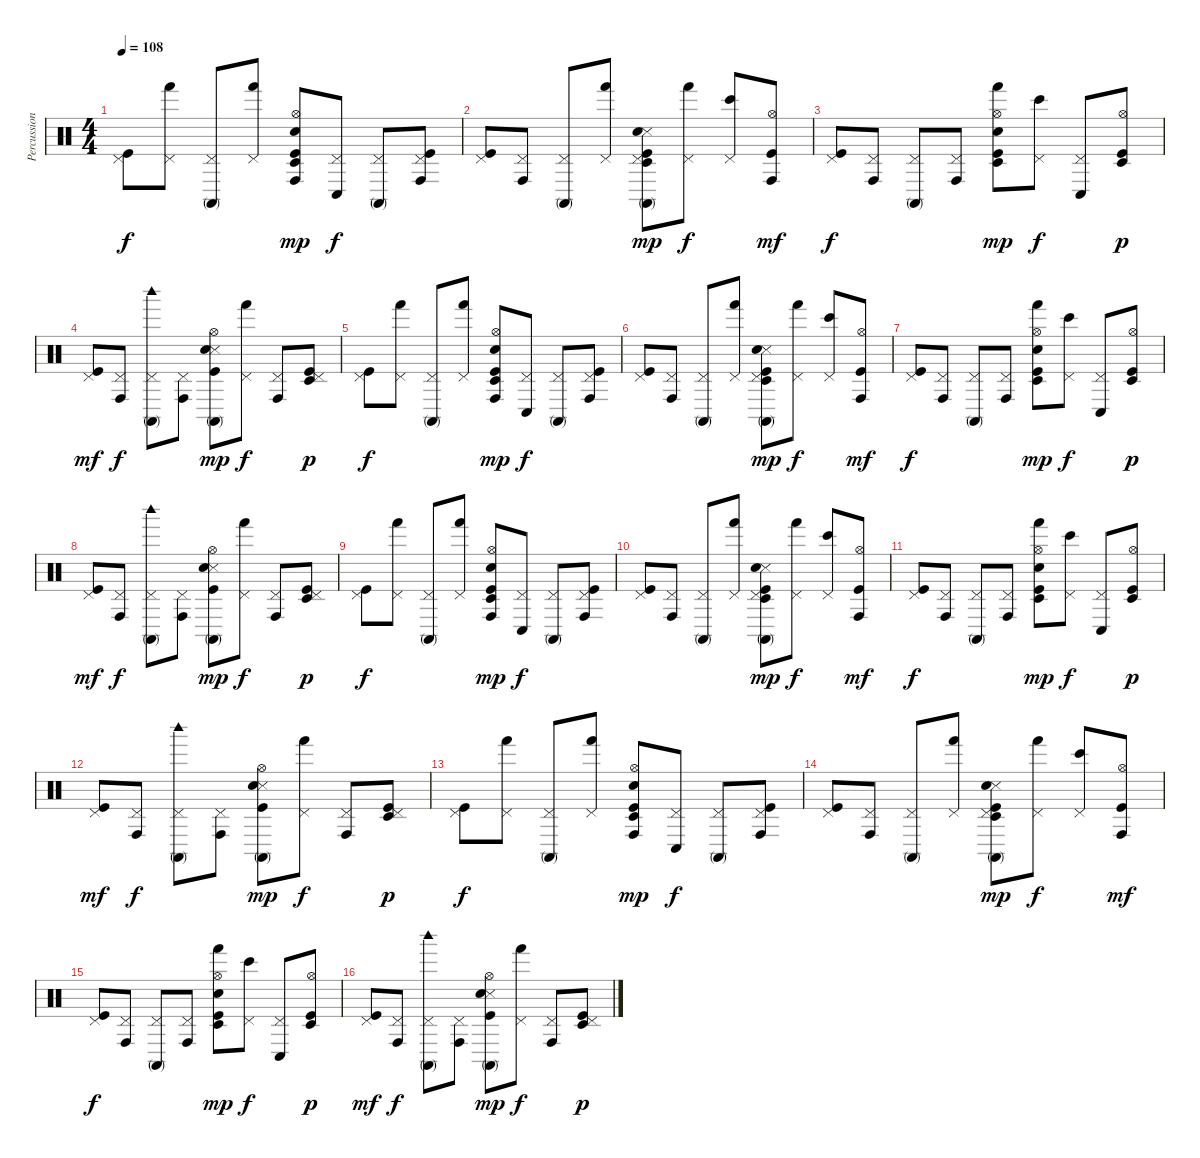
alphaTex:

\track ("Percussions" "Percussion") {instrument percussion}
\staff {score}
\articulation defaults
\ts (4 4)
\tempo 108
\clef neutral
\ks c
("Pedal Hi-Hat (hit)" "Kick (hit)").8{dy f} ("Pedal Hi-Hat (hit)" "Hand (hit)").8 ("Pedal Hi-Hat (hit)" "Conga high (mute)").8 ("Pedal Hi-Hat (hit)" "Hand (hit)").8 ("Hi-Hat (open)" "Conga high (hit)" "Kick (hit)" "Snare (hit) 2" "Timbale low (hit)").8{dy mp} ("Pedal Hi-Hat (hit)" "Conga low (hit)").8{dy f} ("Pedal Hi-Hat (hit)" "Conga high (mute)").8 ("Pedal Hi-Hat (hit)" "Kick (hit)" "Conga high (hit)").8 |
("Pedal Hi-Hat (hit)" "Kick (hit)").8 ("Pedal Hi-Hat (hit)" "Conga high (hit)").8 ("Pedal Hi-Hat (hit)" "Conga high (mute)").8 ("Pedal Hi-Hat (hit)" "Hand (hit)").8 ("Pedal Hi-Hat (hit)" "Conga high (mute)" "Snare (side stick) 3" "Kick (hit)" "Snare (hit) 2" "Timbale low (hit)").8{dy mp} ("Pedal Hi-Hat (hit)" "Hand (hit)").8{dy f} ("Pedal Hi-Hat (hit)" "Bongo High (hit)").8 ("Hi-Hat (open)" "Conga high (hit)" "Kick (hit)").8{dy mf} |
("Pedal Hi-Hat (hit)" "Kick (hit)").8{dy f} ("Pedal Hi-Hat (hit)" "Conga high (hit)").8 ("Pedal Hi-Hat (hit)" "Conga high (mute)").8 ("Pedal Hi-Hat (hit)" "Conga high (hit)").8 ("Hi-Hat (open)" "Hand (hit)" "Kick (hit)" "Snare (hit) 2" "Timbale low (hit)").8{dy mp} ("Pedal Hi-Hat (hit)" "Bongo High (hit)").8{dy f} ("Pedal Hi-Hat (hit)" "Conga low (hit)").8 ("Hi-Hat (open)" "Kick (hit)" "Timbale low (hit)").8{dy p} |
("Pedal Hi-Hat (hit)" "Kick (hit)").8{dy mf} ("Pedal Hi-Hat (hit)" "Conga high (hit)").8{dy f} ("Pedal Hi-Hat (hit)" "Conga high (mute)" "Woodblock high (hit)").8 ("Pedal Hi-Hat (hit)" "Conga high (hit)").8 ("Hi-Hat (open)" "Snare (side stick) 3" "Kick (hit)" "Conga high (mute)" "Snare (hit) 2").8{dy mp} ("Pedal Hi-Hat (hit)" "Hand (hit)").8{dy f} ("Pedal Hi-Hat (hit)" "Conga high (hit)").8 ("Pedal Hi-Hat (hit)" "Kick (hit)" "Timbale low (hit)").8{dy p} |
("Pedal Hi-Hat (hit)" "Kick (hit)").8{dy f} ("Pedal Hi-Hat (hit)" "Hand (hit)").8 ("Pedal Hi-Hat (hit)" "Conga high (mute)").8 ("Pedal Hi-Hat (hit)" "Hand (hit)").8 ("Hi-Hat (open)" "Conga high (hit)" "Kick (hit)" "Snare (hit) 2" "Timbale low (hit)").8{dy mp} ("Pedal Hi-Hat (hit)" "Conga low (hit)").8{dy f} ("Pedal Hi-Hat (hit)" "Conga high (mute)").8 ("Pedal Hi-Hat (hit)" "Kick (hit)" "Conga high (hit)").8 |
("Pedal Hi-Hat (hit)" "Kick (hit)").8 ("Pedal Hi-Hat (hit)" "Conga high (hit)").8 ("Pedal Hi-Hat (hit)" "Conga high (mute)").8 ("Pedal Hi-Hat (hit)" "Hand (hit)").8 ("Pedal Hi-Hat (hit)" "Conga high (mute)" "Snare (side stick) 3" "Kick (hit)" "Snare (hit) 2" "Timbale low (hit)").8{dy mp} ("Pedal Hi-Hat (hit)" "Hand (hit)").8{dy f} ("Pedal Hi-Hat (hit)" "Bongo High (hit)").8 ("Hi-Hat (open)" "Conga high (hit)" "Kick (hit)").8{dy mf} |
("Pedal Hi-Hat (hit)" "Kick (hit)").8{dy f} ("Pedal Hi-Hat (hit)" "Conga high (hit)").8 ("Pedal Hi-Hat (hit)" "Conga high (mute)").8 ("Pedal Hi-Hat (hit)" "Conga high (hit)").8 ("Hi-Hat (open)" "Hand (hit)" "Kick (hit)" "Snare (hit) 2" "Timbale low (hit)").8{dy mp} ("Pedal Hi-Hat (hit)" "Bongo High (hit)").8{dy f} ("Pedal Hi-Hat (hit)" "Conga low (hit)").8 ("Hi-Hat (open)" "Kick (hit)" "Timbale low (hit)").8{dy p} |
("Pedal Hi-Hat (hit)" "Kick (hit)").8{dy mf} ("Pedal Hi-Hat (hit)" "Conga high (hit)").8{dy f} ("Pedal Hi-Hat (hit)" "Conga high (mute)" "Woodblock high (hit)").8 ("Pedal Hi-Hat (hit)" "Conga high (hit)").8 ("Hi-Hat (open)" "Snare (side stick) 3" "Kick (hit)" "Conga high (mute)" "Snare (hit) 2").8{dy mp} ("Pedal Hi-Hat (hit)" "Hand (hit)").8{dy f} ("Pedal Hi-Hat (hit)" "Conga high (hit)").8 ("Pedal Hi-Hat (hit)" "Kick (hit)" "Timbale low (hit)").8{dy p} |
("Pedal Hi-Hat (hit)" "Kick (hit)").8{dy f} ("Pedal Hi-Hat (hit)" "Hand (hit)").8 ("Pedal Hi-Hat (hit)" "Conga high (mute)").8 ("Pedal Hi-Hat (hit)" "Hand (hit)").8 ("Hi-Hat (open)" "Conga high (hit)" "Kick (hit)" "Snare (hit) 2" "Timbale low (hit)").8{dy mp} ("Pedal Hi-Hat (hit)" "Conga low (hit)").8{dy f} ("Pedal Hi-Hat (hit)" "Conga high (mute)").8 ("Pedal Hi-Hat (hit)" "Kick (hit)" "Conga high (hit)").8 |
("Pedal Hi-Hat (hit)" "Kick (hit)").8 ("Pedal Hi-Hat (hit)" "Conga high (hit)").8 ("Pedal Hi-Hat (hit)" "Conga high (mute)").8 ("Pedal Hi-Hat (hit)" "Hand (hit)").8 ("Pedal Hi-Hat (hit)" "Conga high (mute)" "Snare (side stick) 3" "Kick (hit)" "Snare (hit) 2" "Timbale low (hit)").8{dy mp} ("Pedal Hi-Hat (hit)" "Hand (hit)").8{dy f} ("Pedal Hi-Hat (hit)" "Bongo High (hit)").8 ("Hi-Hat (open)" "Conga high (hit)" "Kick (hit)").8{dy mf} |
("Pedal Hi-Hat (hit)" "Kick (hit)").8{dy f} ("Pedal Hi-Hat (hit)" "Conga high (hit)").8 ("Pedal Hi-Hat (hit)" "Conga high (mute)").8 ("Pedal Hi-Hat (hit)" "Conga high (hit)").8 ("Hi-Hat (open)" "Hand (hit)" "Kick (hit)" "Snare (hit) 2" "Timbale low (hit)").8{dy mp} ("Pedal Hi-Hat (hit)" "Bongo High (hit)").8{dy f} ("Pedal Hi-Hat (hit)" "Conga low (hit)").8 ("Hi-Hat (open)" "Kick (hit)" "Timbale low (hit)").8{dy p} |
("Pedal Hi-Hat (hit)" "Kick (hit)").8{dy mf} ("Pedal Hi-Hat (hit)" "Conga high (hit)").8{dy f} ("Pedal Hi-Hat (hit)" "Conga high (mute)" "Woodblock high (hit)").8 ("Pedal Hi-Hat (hit)" "Conga high (hit)").8 ("Hi-Hat (open)" "Snare (side stick) 3" "Kick (hit)" "Conga high (mute)" "Snare (hit) 2").8{dy mp} ("Pedal Hi-Hat (hit)" "Hand (hit)").8{dy f} ("Pedal Hi-Hat (hit)" "Conga high (hit)").8 ("Pedal Hi-Hat (hit)" "Kick (hit)" "Timbale low (hit)").8{dy p} |
("Pedal Hi-Hat (hit)" "Kick (hit)").8{dy f} ("Pedal Hi-Hat (hit)" "Hand (hit)").8 ("Pedal Hi-Hat (hit)" "Conga high (mute)").8 ("Pedal Hi-Hat (hit)" "Hand (hit)").8 ("Hi-Hat (open)" "Conga high (hit)" "Kick (hit)" "Snare (hit) 2" "Timbale low (hit)").8{dy mp} ("Pedal Hi-Hat (hit)" "Conga low (hit)").8{dy f} ("Pedal Hi-Hat (hit)" "Conga high (mute)").8 ("Pedal Hi-Hat (hit)" "Kick (hit)" "Conga high (hit)").8 |
("Pedal Hi-Hat (hit)" "Kick (hit)").8 ("Pedal Hi-Hat (hit)" "Conga high (hit)").8 ("Pedal Hi-Hat (hit)" "Conga high (mute)").8 ("Pedal Hi-Hat (hit)" "Hand (hit)").8 ("Pedal Hi-Hat (hit)" "Conga high (mute)" "Snare (side stick) 3" "Kick (hit)" "Snare (hit) 2" "Timbale low (hit)").8{dy mp} ("Pedal Hi-Hat (hit)" "Hand (hit)").8{dy f} ("Pedal Hi-Hat (hit)" "Bongo High (hit)").8 ("Hi-Hat (open)" "Conga high (hit)" "Kick (hit)").8{dy mf} |
("Pedal Hi-Hat (hit)" "Kick (hit)").8{dy f} ("Pedal Hi-Hat (hit)" "Conga high (hit)").8 ("Pedal Hi-Hat (hit)" "Conga high (mute)").8 ("Pedal Hi-Hat (hit)" "Conga high (hit)").8 ("Hi-Hat (open)" "Hand (hit)" "Kick (hit)" "Snare (hit) 2" "Timbale low (hit)").8{dy mp} ("Pedal Hi-Hat (hit)" "Bongo High (hit)").8{dy f} ("Pedal Hi-Hat (hit)" "Conga low (hit)").8 ("Hi-Hat (open)" "Kick (hit)" "Timbale low (hit)").8{dy p} |
("Pedal Hi-Hat (hit)" "Kick (hit)").8{dy mf} ("Pedal Hi-Hat (hit)" "Conga high (hit)").8{dy f} ("Pedal Hi-Hat (hit)" "Conga high (mute)" "Woodblock high (hit)").8 ("Pedal Hi-Hat (hit)" "Conga high (hit)").8 ("Hi-Hat (open)" "Snare (side stick) 3" "Kick (hit)" "Conga high (mute)" "Snare (hit) 2").8{dy mp} ("Pedal Hi-Hat (hit)" "Hand (hit)").8{dy f} ("Pedal Hi-Hat (hit)" "Conga high (hit)").8 ("Pedal Hi-Hat (hit)" "Kick (hit)" "Timbale low (hit)").8{dy p}
